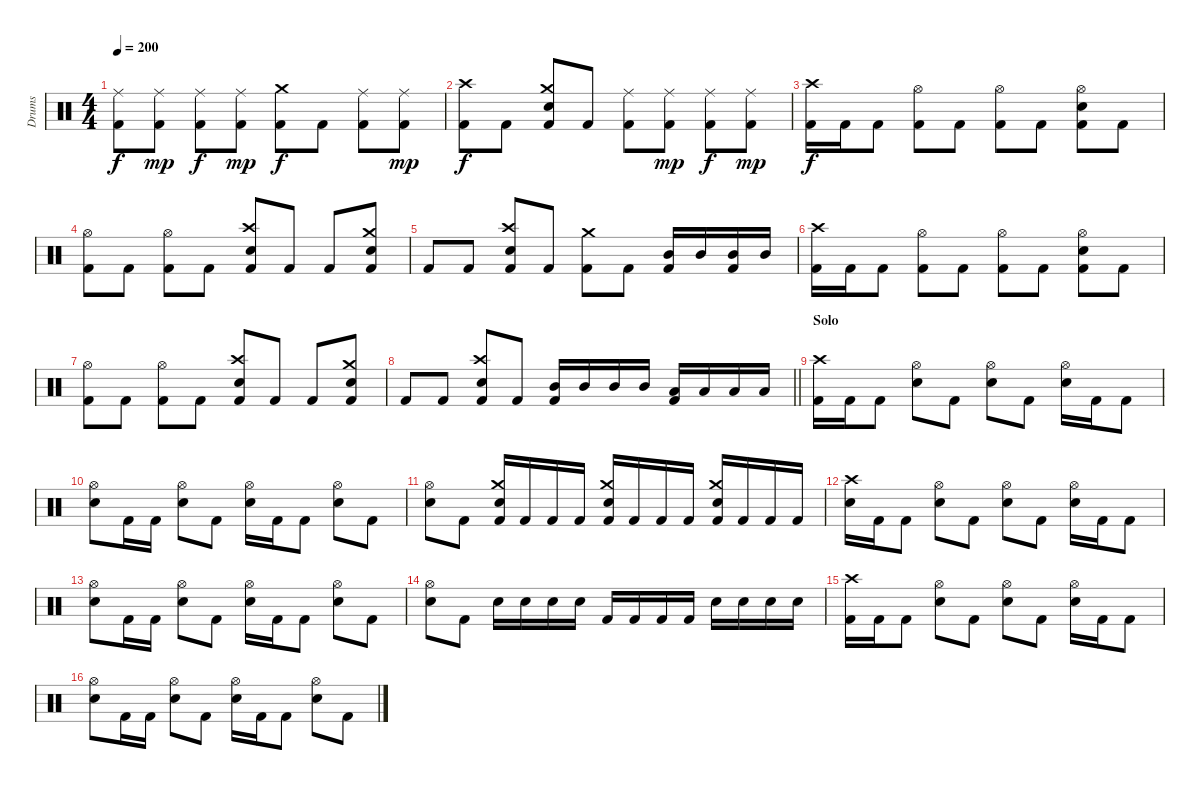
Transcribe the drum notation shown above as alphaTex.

\track ("Drums" "Drums") {instrument percussion}
\staff {score}
\articulation defaults
\ts (4 4)
\tempo 200
\clef neutral
\ks c
("Ride (middle)" "Kick (hit) 2").8{dy f} ("Ride (middle)" "Kick (hit) 2").8{dy mp} ("Ride (middle)" "Kick (hit) 2").8{dy f} ("Ride (middle)" "Kick (hit) 2").8{dy mp} ("Crash medium (hit)" "Kick (hit) 2").8{dy f} "Kick (hit) 2".8 ("Ride (middle)" "Kick (hit) 2").8 ("Ride (middle)" "Kick (hit) 2").8{dy mp} |
("Crash high (hit)" "Kick (hit) 2").8{dy f} "Kick (hit) 2".8 ("Crash medium (hit)" "Snare (hit) 2" "Kick (hit) 2").8 "Kick (hit) 2".8 ("Ride (middle)" "Kick (hit) 2").8 ("Ride (middle)" "Kick (hit) 2").8{dy mp} ("Ride (middle)" "Kick (hit) 2").8{dy f} ("Ride (middle)" "Kick (hit) 2").8{dy mp} |
("Crash high (hit)" "Kick (hit) 2").16{dy f} "Kick (hit) 2".16 "Kick (hit) 2".8 ("Hi-Hat (open)" "Kick (hit) 2").8 "Kick (hit) 2".8 ("Hi-Hat (open)" "Kick (hit) 2").8 "Kick (hit) 2".8 ("Hi-Hat (open)" "Snare (hit) 2" "Kick (hit) 2").8 "Kick (hit) 2".8 |
("Hi-Hat (open)" "Kick (hit) 2").8 "Kick (hit) 2".8 ("Hi-Hat (open)" "Kick (hit) 2").8 "Kick (hit) 2".8 ("Crash high (hit)" "Snare (hit) 2" "Kick (hit) 2").8 "Kick (hit) 2".8 "Kick (hit) 2".8 ("Crash medium (hit)" "Snare (hit) 2" "Kick (hit) 2").8 |
"Kick (hit) 2".8 "Kick (hit) 2".8 ("Crash high (hit)" "Snare (hit) 2" "Kick (hit) 2").8 "Kick (hit) 2".8 ("Crash medium (hit)" "Kick (hit) 2").8 "Kick (hit) 2".8 ("Mid Tom (hit)" "Kick (hit) 2").16 "Mid Tom (hit)".16 ("Mid Tom (hit)" "Kick (hit) 2").16 "Mid Tom (hit)".16 |
("Crash high (hit)" "Kick (hit) 2").16 "Kick (hit) 2".16 "Kick (hit) 2".8 ("Hi-Hat (open)" "Kick (hit) 2").8 "Kick (hit) 2".8 ("Hi-Hat (open)" "Kick (hit) 2").8 "Kick (hit) 2".8 ("Hi-Hat (open)" "Snare (hit) 2" "Kick (hit) 2").8 "Kick (hit) 2".8 |
("Hi-Hat (open)" "Kick (hit) 2").8 "Kick (hit) 2".8 ("Hi-Hat (open)" "Kick (hit) 2").8 "Kick (hit) 2".8 ("Crash high (hit)" "Snare (hit) 2" "Kick (hit) 2").8 "Kick (hit) 2".8 "Kick (hit) 2".8 ("Crash medium (hit)" "Snare (hit) 2" "Kick (hit) 2").8 |
\barLineRight lightlight "Kick (hit) 2".8 "Kick (hit) 2".8
("Crash high (hit)" "Snare (hit) 2" "Kick (hit) 2").8 "Kick (hit) 2".8 ("Mid Tom (hit)" "Kick (hit) 2").16 "Mid Tom (hit)".16 "Mid Tom (hit)".16 "Mid Tom (hit)".16 ("Low Tom (hit)" "Kick (hit) 2").16 "Low Tom (hit)".16 "Low Tom (hit)".16 "Low Tom (hit)".16 |
\section ("" "Solo")
("Crash high (hit)" "Kick (hit) 2").16 "Kick (hit) 2".16 "Kick (hit) 2".8 ("Hi-Hat (open)" "Snare (hit) 2").8 "Kick (hit) 2".8 ("Hi-Hat (open)" "Snare (hit) 2").8 "Kick (hit) 2".8 ("Hi-Hat (open)" "Snare (hit) 2").16 "Kick (hit) 2".16 "Kick (hit) 2".8 |
("Hi-Hat (open)" "Snare (hit) 2").8 "Kick (hit) 2".16 "Kick (hit) 2".16 ("Hi-Hat (open)" "Snare (hit) 2").8 "Kick (hit) 2".8 ("Hi-Hat (open)" "Snare (hit) 2").16 "Kick (hit) 2".16 "Kick (hit) 2".8 ("Hi-Hat (open)" "Snare (hit) 2").8 "Kick (hit) 2".8 |
("Hi-Hat (open)" "Snare (hit) 2").8 "Kick (hit) 2".8 ("Crash medium (hit)" "Snare (hit) 2" "Kick (hit) 2").16 "Kick (hit) 2".16 "Kick (hit) 2".16 "Kick (hit) 2".16 ("Crash medium (hit)" "Snare (hit) 2" "Kick (hit) 2").16 "Kick (hit) 2".16 "Kick (hit) 2".16 "Kick (hit) 2".16 ("Crash medium (hit)" "Snare (hit) 2" "Kick (hit) 2").16 "Kick (hit) 2".16 "Kick (hit) 2".16 "Kick (hit) 2".16 |
("Crash high (hit)" "Snare (hit) 2").16 "Kick (hit) 2".16 "Kick (hit) 2".8 ("Hi-Hat (open)" "Snare (hit) 2").8 "Kick (hit) 2".8 ("Hi-Hat (open)" "Snare (hit) 2").8 "Kick (hit) 2".8 ("Hi-Hat (open)" "Snare (hit) 2").16 "Kick (hit) 2".16 "Kick (hit) 2".8 |
("Hi-Hat (open)" "Snare (hit) 2").8 "Kick (hit) 2".16 "Kick (hit) 2".16 ("Hi-Hat (open)" "Snare (hit) 2").8 "Kick (hit) 2".8 ("Hi-Hat (open)" "Snare (hit) 2").16 "Kick (hit) 2".16 "Kick (hit) 2".8 ("Hi-Hat (open)" "Snare (hit) 2").8 "Kick (hit) 2".8 |
("Hi-Hat (open)" "Snare (hit) 2").8 "Kick (hit) 2".8 "Snare (hit) 2".16 "Snare (hit) 2".16 "Snare (hit) 2".16 "Snare (hit) 2".16 "Kick (hit) 2".16 "Kick (hit) 2".16 "Kick (hit) 2".16 "Kick (hit) 2".16 "Snare (hit) 2".16 "Snare (hit) 2".16 "Snare (hit) 2".16 "Snare (hit) 2".16 |
("Crash high (hit)" "Kick (hit) 2").16 "Kick (hit) 2".16 "Kick (hit) 2".8 ("Hi-Hat (open)" "Snare (hit) 2").8 "Kick (hit) 2".8 ("Hi-Hat (open)" "Snare (hit) 2").8 "Kick (hit) 2".8 ("Hi-Hat (open)" "Snare (hit) 2").16 "Kick (hit) 2".16 "Kick (hit) 2".8 |
("Hi-Hat (open)" "Snare (hit) 2").8 "Kick (hit) 2".16 "Kick (hit) 2".16 ("Hi-Hat (open)" "Snare (hit) 2").8 "Kick (hit) 2".8 ("Hi-Hat (open)" "Snare (hit) 2").16 "Kick (hit) 2".16 "Kick (hit) 2".8 ("Hi-Hat (open)" "Snare (hit) 2").8 "Kick (hit) 2".8
